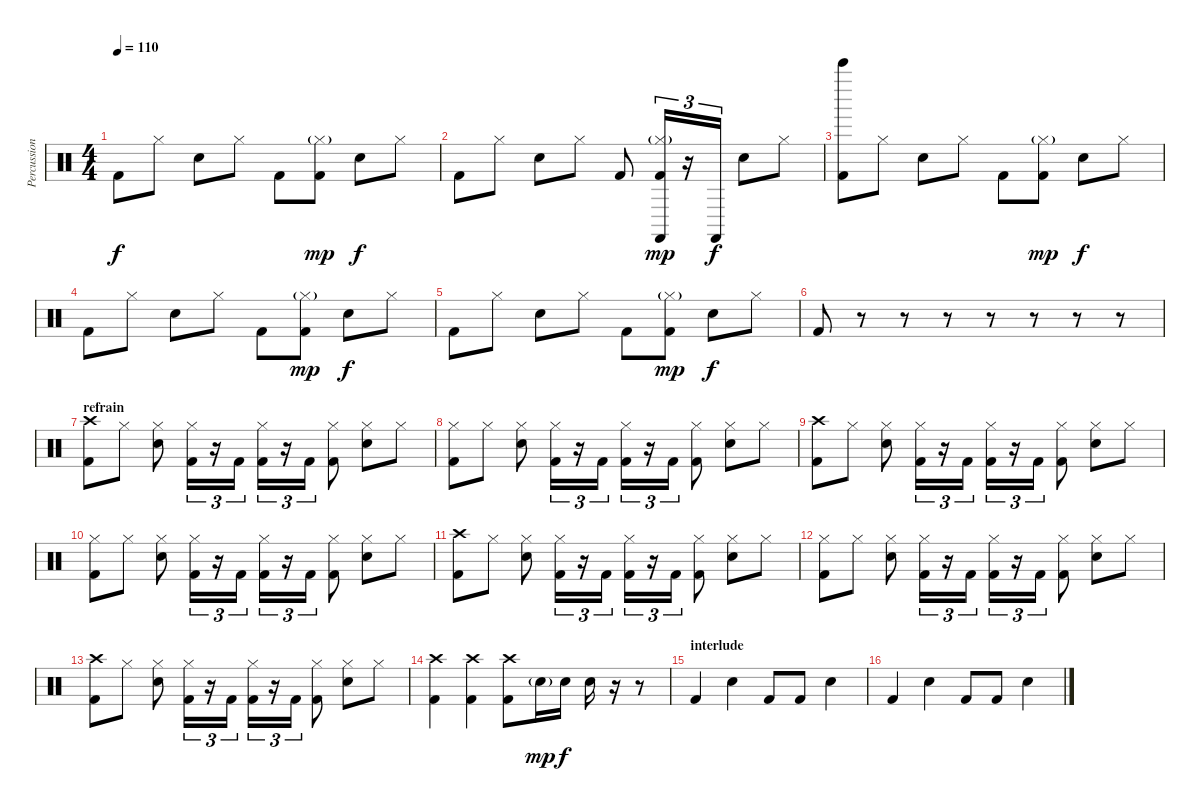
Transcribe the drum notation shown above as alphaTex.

\track ("Percussion" "Percussion") {instrument percussion}
\staff {score}
\articulation defaults
\ts (4 4)
\tempo 110
\clef neutral
\ks c "Kick (hit) 2".8{dy f} "Hi-Hat (closed)".8 "Electric Snare (hit)".8 "Hi-Hat (closed)".8 "Kick (hit) 2".8
("Hi-Hat (closed)"{g} "Kick (hit) 2").8{dy mp} "Electric Snare (hit)".8{dy f} "Hi-Hat (closed)".8 |
"Kick (hit) 2".8 "Hi-Hat (closed)".8 "Electric Snare (hit)".8 "Hi-Hat (closed)".8 "Kick (hit) 2".8 ("Hi-Hat (closed)"{g} "Castanets (hit)" "Kick (hit) 2").16{tu (3 2) dy mp} r.16{tu (3 2)} "Castanets (hit)".16{tu (3 2) dy f} "Electric Snare (hit)".8 "Hi-Hat (closed)".8 |
("Bell Tree (hit)" "Kick (hit) 2").8 "Hi-Hat (closed)".8 "Electric Snare (hit)".8 "Hi-Hat (closed)".8 "Kick (hit) 2".8 ("Hi-Hat (closed)"{g} "Kick (hit) 2").8{dy mp} "Electric Snare (hit)".8{dy f} "Hi-Hat (closed)".8 |
"Kick (hit) 2".8 "Hi-Hat (closed)".8 "Electric Snare (hit)".8 "Hi-Hat (closed)".8 "Kick (hit) 2".8 ("Hi-Hat (closed)"{g} "Kick (hit) 2").8{dy mp} "Electric Snare (hit)".8{dy f} "Hi-Hat (closed)".8 |
"Kick (hit) 2".8 "Hi-Hat (closed)".8 "Electric Snare (hit)".8 "Hi-Hat (closed)".8 "Kick (hit) 2".8 ("Hi-Hat (closed)"{g} "Kick (hit) 2").8{dy mp} "Electric Snare (hit)".8{dy f} "Hi-Hat (closed)".8 |
"Kick (hit) 2".8 r.8 r.8 r.8 r.8 r.8 r.8 r.8 |
\section ("" "refrain")
("Crash high (hit)" "Kick (hit) 2").8 "Hi-Hat (closed)".8 ("Hi-Hat (closed)" "Electric Snare (hit)").8 ("Hi-Hat (closed)" "Kick (hit) 2").16{tu (3 2)} r.16{tu (3 2)} "Kick (hit) 2".16{tu (3 2)} ("Hi-Hat (closed)" "Kick (hit) 2").16{tu (3 2)} r.16{tu (3 2)} "Kick (hit) 2".16{tu (3 2)} ("Hi-Hat (closed)" "Kick (hit) 2").8 ("Hi-Hat (closed)" "Electric Snare (hit)").8 "Hi-Hat (closed)".8 |
("Hi-Hat (closed)" "Kick (hit) 2").8 "Hi-Hat (closed)".8 ("Hi-Hat (closed)" "Electric Snare (hit)").8 ("Hi-Hat (closed)" "Kick (hit) 2").16{tu (3 2)} r.16{tu (3 2)} "Kick (hit) 2".16{tu (3 2)} ("Hi-Hat (closed)" "Kick (hit) 2").16{tu (3 2)} r.16{tu (3 2)} "Kick (hit) 2".16{tu (3 2)} ("Hi-Hat (closed)" "Kick (hit) 2").8 ("Hi-Hat (closed)" "Electric Snare (hit)").8 "Hi-Hat (closed)".8 |
("Crash high (hit)" "Kick (hit) 2").8 "Hi-Hat (closed)".8 ("Hi-Hat (closed)" "Electric Snare (hit)").8 ("Hi-Hat (closed)" "Kick (hit) 2").16{tu (3 2)} r.16{tu (3 2)} "Kick (hit) 2".16{tu (3 2)} ("Hi-Hat (closed)" "Kick (hit) 2").16{tu (3 2)} r.16{tu (3 2)} "Kick (hit) 2".16{tu (3 2)} ("Hi-Hat (closed)" "Kick (hit) 2").8 ("Hi-Hat (closed)" "Electric Snare (hit)").8 "Hi-Hat (closed)".8 |
("Hi-Hat (closed)" "Kick (hit) 2").8 "Hi-Hat (closed)".8 ("Hi-Hat (closed)" "Electric Snare (hit)").8 ("Hi-Hat (closed)" "Kick (hit) 2").16{tu (3 2)} r.16{tu (3 2)} "Kick (hit) 2".16{tu (3 2)} ("Hi-Hat (closed)" "Kick (hit) 2").16{tu (3 2)} r.16{tu (3 2)} "Kick (hit) 2".16{tu (3 2)} ("Hi-Hat (closed)" "Kick (hit) 2").8 ("Hi-Hat (closed)" "Electric Snare (hit)").8 "Hi-Hat (closed)".8 |
("Crash high (hit)" "Kick (hit) 2").8 "Hi-Hat (closed)".8 ("Hi-Hat (closed)" "Electric Snare (hit)").8 ("Hi-Hat (closed)" "Kick (hit) 2").16{tu (3 2)} r.16{tu (3 2)} "Kick (hit) 2".16{tu (3 2)} ("Hi-Hat (closed)" "Kick (hit) 2").16{tu (3 2)} r.16{tu (3 2)} "Kick (hit) 2".16{tu (3 2)} ("Hi-Hat (closed)" "Kick (hit) 2").8 ("Hi-Hat (closed)" "Electric Snare (hit)").8 "Hi-Hat (closed)".8 |
("Hi-Hat (closed)" "Kick (hit) 2").8 "Hi-Hat (closed)".8 ("Hi-Hat (closed)" "Electric Snare (hit)").8 ("Hi-Hat (closed)" "Kick (hit) 2").16{tu (3 2)} r.16{tu (3 2)} "Kick (hit) 2".16{tu (3 2)} ("Hi-Hat (closed)" "Kick (hit) 2").16{tu (3 2)} r.16{tu (3 2)} "Kick (hit) 2".16{tu (3 2)} ("Hi-Hat (closed)" "Kick (hit) 2").8 ("Hi-Hat (closed)" "Electric Snare (hit)").8 "Hi-Hat (closed)".8 |
("Crash high (hit)" "Kick (hit) 2").8 "Hi-Hat (closed)".8 ("Hi-Hat (closed)" "Electric Snare (hit)").8 ("Hi-Hat (closed)" "Kick (hit) 2").16{tu (3 2)} r.16{tu (3 2)} "Kick (hit) 2".16{tu (3 2)} ("Hi-Hat (closed)" "Kick (hit) 2").16{tu (3 2)} r.16{tu (3 2)} "Kick (hit) 2".16{tu (3 2)} ("Hi-Hat (closed)" "Kick (hit) 2").8 ("Hi-Hat (closed)" "Electric Snare (hit)").8 "Hi-Hat (closed)".8 |
("Crash high (hit)" "Kick (hit) 2").4 ("Crash high (hit)" "Kick (hit) 2").4 ("Crash high (hit)" "Kick (hit) 2").8 "Electric Snare (hit)"{g}.16{dy mp} "Electric Snare (hit)".16{dy f} "Electric Snare (hit)".16 r.16 r.8 |
\section ("" "interlude")
"Kick (hit) 2".4 "Electric Snare (hit)".4 "Kick (hit) 2".8 "Kick (hit) 2".8 "Electric Snare (hit)".4 |
"Kick (hit) 2".4 "Electric Snare (hit)".4 "Kick (hit) 2".8 "Kick (hit) 2".8 "Electric Snare (hit)".4
